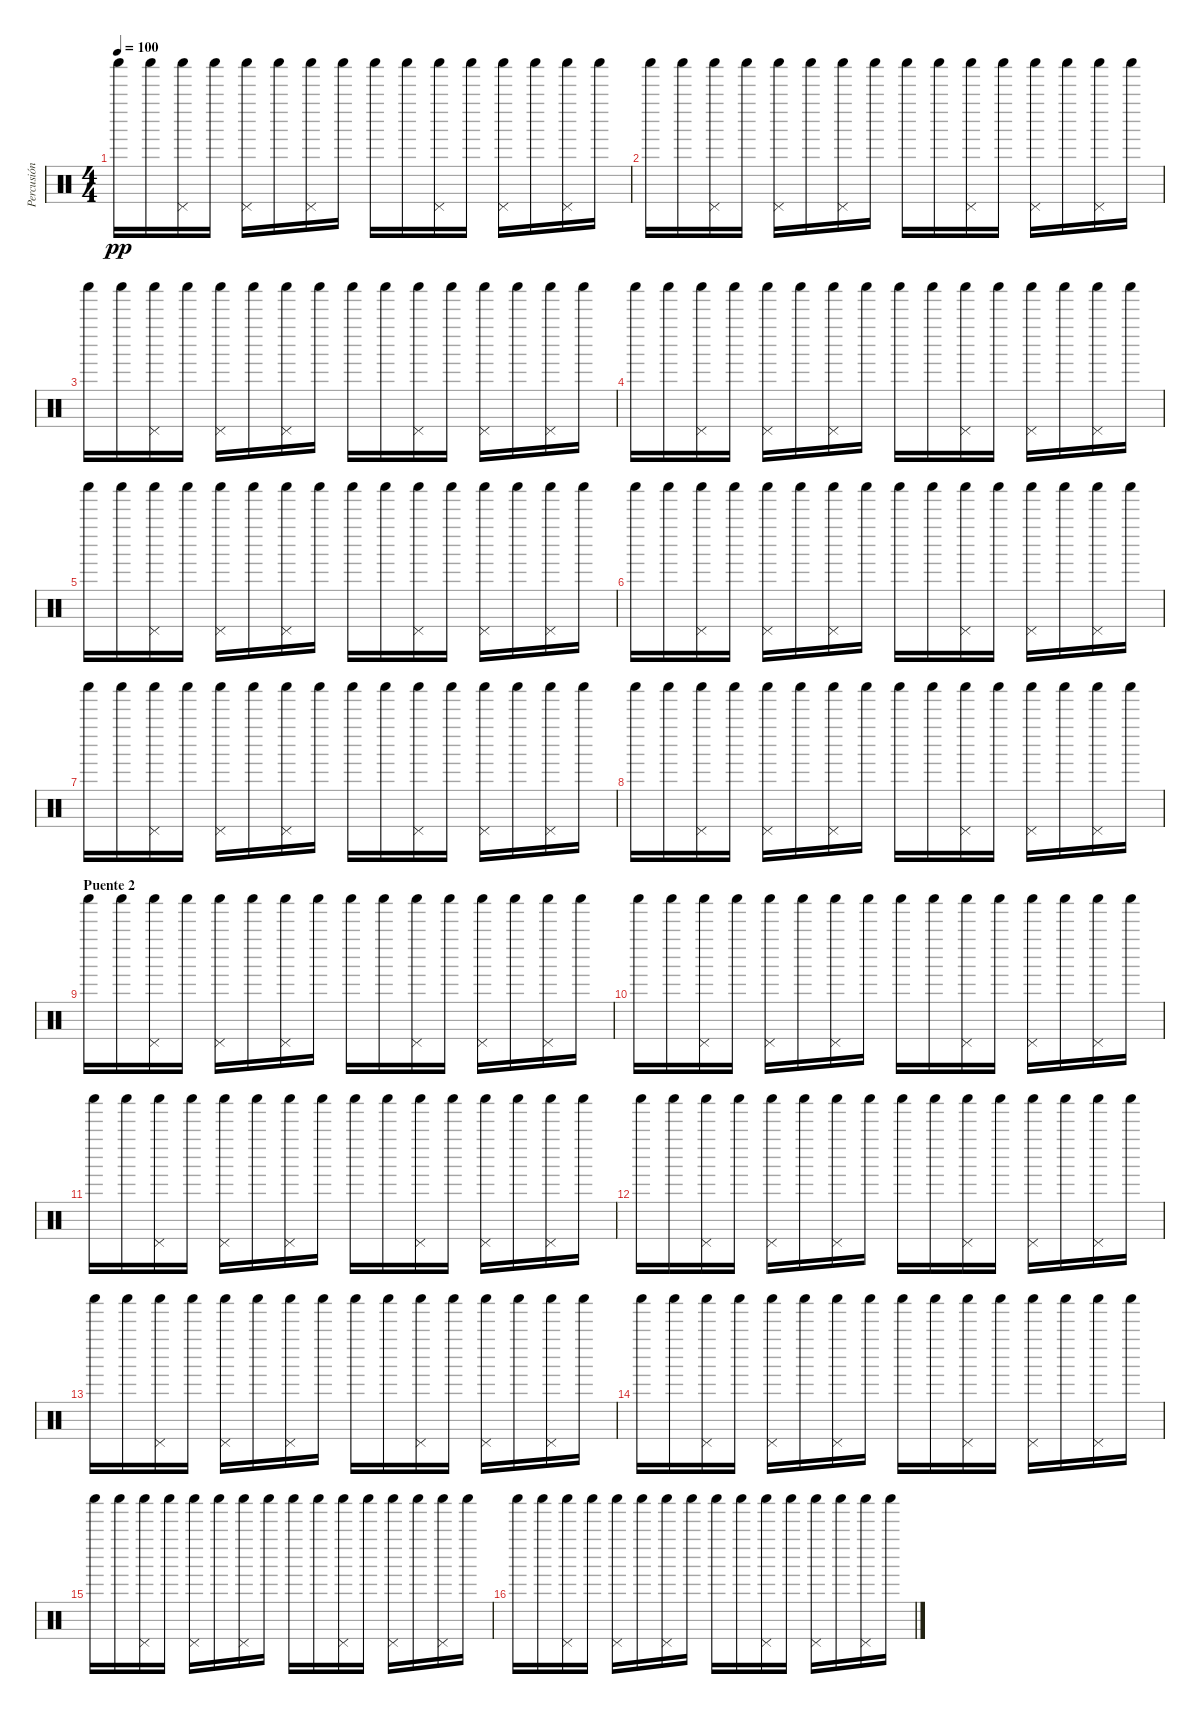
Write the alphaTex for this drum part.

\track ("Percusión" "Percusión") {instrument percussion}
\staff {score}
\articulation defaults
\ts (4 4)
\tempo 100
\clef neutral
\ks c "Shaker (hit)".16{dy pp} "Shaker (hit)".16
("Shaker (hit)" "Pedal Hi-Hat (hit)").16 "Shaker (hit)".16 ("Shaker (hit)" "Pedal Hi-Hat (hit)").16 "Shaker (hit)".16 ("Shaker (hit)" "Pedal Hi-Hat (hit)").16 "Shaker (hit)".16 "Shaker (hit)".16 "Shaker (hit)".16 ("Shaker (hit)" "Pedal Hi-Hat (hit)").16 "Shaker (hit)".16 ("Shaker (hit)" "Pedal Hi-Hat (hit)").16 "Shaker (hit)".16 ("Shaker (hit)" "Pedal Hi-Hat (hit)").16 "Shaker (hit)".16 |
"Shaker (hit)".16 "Shaker (hit)".16 ("Shaker (hit)" "Pedal Hi-Hat (hit)").16 "Shaker (hit)".16 ("Shaker (hit)" "Pedal Hi-Hat (hit)").16 "Shaker (hit)".16 ("Shaker (hit)" "Pedal Hi-Hat (hit)").16 "Shaker (hit)".16 "Shaker (hit)".16 "Shaker (hit)".16 ("Shaker (hit)" "Pedal Hi-Hat (hit)").16 "Shaker (hit)".16 ("Shaker (hit)" "Pedal Hi-Hat (hit)").16 "Shaker (hit)".16 ("Shaker (hit)" "Pedal Hi-Hat (hit)").16 "Shaker (hit)".16 |
"Shaker (hit)".16 "Shaker (hit)".16 ("Shaker (hit)" "Pedal Hi-Hat (hit)").16 "Shaker (hit)".16 ("Shaker (hit)" "Pedal Hi-Hat (hit)").16 "Shaker (hit)".16 ("Shaker (hit)" "Pedal Hi-Hat (hit)").16 "Shaker (hit)".16 "Shaker (hit)".16 "Shaker (hit)".16 ("Shaker (hit)" "Pedal Hi-Hat (hit)").16 "Shaker (hit)".16 ("Shaker (hit)" "Pedal Hi-Hat (hit)").16 "Shaker (hit)".16 ("Shaker (hit)" "Pedal Hi-Hat (hit)").16 "Shaker (hit)".16 |
"Shaker (hit)".16 "Shaker (hit)".16 ("Shaker (hit)" "Pedal Hi-Hat (hit)").16 "Shaker (hit)".16 ("Shaker (hit)" "Pedal Hi-Hat (hit)").16 "Shaker (hit)".16 ("Shaker (hit)" "Pedal Hi-Hat (hit)").16 "Shaker (hit)".16 "Shaker (hit)".16 "Shaker (hit)".16 ("Shaker (hit)" "Pedal Hi-Hat (hit)").16 "Shaker (hit)".16 ("Shaker (hit)" "Pedal Hi-Hat (hit)").16 "Shaker (hit)".16 ("Shaker (hit)" "Pedal Hi-Hat (hit)").16 "Shaker (hit)".16 |
"Shaker (hit)".16 "Shaker (hit)".16 ("Shaker (hit)" "Pedal Hi-Hat (hit)").16 "Shaker (hit)".16 ("Shaker (hit)" "Pedal Hi-Hat (hit)").16 "Shaker (hit)".16 ("Shaker (hit)" "Pedal Hi-Hat (hit)").16 "Shaker (hit)".16 "Shaker (hit)".16 "Shaker (hit)".16 ("Shaker (hit)" "Pedal Hi-Hat (hit)").16 "Shaker (hit)".16 ("Shaker (hit)" "Pedal Hi-Hat (hit)").16 "Shaker (hit)".16 ("Shaker (hit)" "Pedal Hi-Hat (hit)").16 "Shaker (hit)".16 |
"Shaker (hit)".16 "Shaker (hit)".16 ("Shaker (hit)" "Pedal Hi-Hat (hit)").16 "Shaker (hit)".16 ("Shaker (hit)" "Pedal Hi-Hat (hit)").16 "Shaker (hit)".16 ("Shaker (hit)" "Pedal Hi-Hat (hit)").16 "Shaker (hit)".16 "Shaker (hit)".16 "Shaker (hit)".16 ("Shaker (hit)" "Pedal Hi-Hat (hit)").16 "Shaker (hit)".16 ("Shaker (hit)" "Pedal Hi-Hat (hit)").16 "Shaker (hit)".16 ("Shaker (hit)" "Pedal Hi-Hat (hit)").16 "Shaker (hit)".16 |
"Shaker (hit)".16 "Shaker (hit)".16 ("Shaker (hit)" "Pedal Hi-Hat (hit)").16 "Shaker (hit)".16 ("Shaker (hit)" "Pedal Hi-Hat (hit)").16 "Shaker (hit)".16 ("Shaker (hit)" "Pedal Hi-Hat (hit)").16 "Shaker (hit)".16 "Shaker (hit)".16 "Shaker (hit)".16 ("Shaker (hit)" "Pedal Hi-Hat (hit)").16 "Shaker (hit)".16 ("Shaker (hit)" "Pedal Hi-Hat (hit)").16 "Shaker (hit)".16 ("Shaker (hit)" "Pedal Hi-Hat (hit)").16 "Shaker (hit)".16 |
"Shaker (hit)".16 "Shaker (hit)".16 ("Shaker (hit)" "Pedal Hi-Hat (hit)").16 "Shaker (hit)".16 ("Shaker (hit)" "Pedal Hi-Hat (hit)").16 "Shaker (hit)".16 ("Shaker (hit)" "Pedal Hi-Hat (hit)").16 "Shaker (hit)".16 "Shaker (hit)".16 "Shaker (hit)".16 ("Shaker (hit)" "Pedal Hi-Hat (hit)").16 "Shaker (hit)".16 ("Shaker (hit)" "Pedal Hi-Hat (hit)").16 "Shaker (hit)".16 ("Shaker (hit)" "Pedal Hi-Hat (hit)").16 "Shaker (hit)".16 |
\section ("" "Puente 2")
"Shaker (hit)".16 "Shaker (hit)".16 ("Shaker (hit)" "Pedal Hi-Hat (hit)").16 "Shaker (hit)".16 ("Shaker (hit)" "Pedal Hi-Hat (hit)").16 "Shaker (hit)".16 ("Shaker (hit)" "Pedal Hi-Hat (hit)").16 "Shaker (hit)".16 "Shaker (hit)".16 "Shaker (hit)".16 ("Shaker (hit)" "Pedal Hi-Hat (hit)").16 "Shaker (hit)".16 ("Shaker (hit)" "Pedal Hi-Hat (hit)").16 "Shaker (hit)".16 ("Shaker (hit)" "Pedal Hi-Hat (hit)").16 "Shaker (hit)".16 |
"Shaker (hit)".16 "Shaker (hit)".16 ("Shaker (hit)" "Pedal Hi-Hat (hit)").16 "Shaker (hit)".16 ("Shaker (hit)" "Pedal Hi-Hat (hit)").16 "Shaker (hit)".16 ("Shaker (hit)" "Pedal Hi-Hat (hit)").16 "Shaker (hit)".16 "Shaker (hit)".16 "Shaker (hit)".16 ("Shaker (hit)" "Pedal Hi-Hat (hit)").16 "Shaker (hit)".16 ("Shaker (hit)" "Pedal Hi-Hat (hit)").16 "Shaker (hit)".16 ("Shaker (hit)" "Pedal Hi-Hat (hit)").16 "Shaker (hit)".16 |
"Shaker (hit)".16 "Shaker (hit)".16 ("Shaker (hit)" "Pedal Hi-Hat (hit)").16 "Shaker (hit)".16 ("Shaker (hit)" "Pedal Hi-Hat (hit)").16 "Shaker (hit)".16 ("Shaker (hit)" "Pedal Hi-Hat (hit)").16 "Shaker (hit)".16 "Shaker (hit)".16 "Shaker (hit)".16 ("Shaker (hit)" "Pedal Hi-Hat (hit)").16 "Shaker (hit)".16 ("Shaker (hit)" "Pedal Hi-Hat (hit)").16 "Shaker (hit)".16 ("Shaker (hit)" "Pedal Hi-Hat (hit)").16 "Shaker (hit)".16 |
"Shaker (hit)".16 "Shaker (hit)".16 ("Shaker (hit)" "Pedal Hi-Hat (hit)").16 "Shaker (hit)".16 ("Shaker (hit)" "Pedal Hi-Hat (hit)").16 "Shaker (hit)".16 ("Shaker (hit)" "Pedal Hi-Hat (hit)").16 "Shaker (hit)".16 "Shaker (hit)".16 "Shaker (hit)".16 ("Shaker (hit)" "Pedal Hi-Hat (hit)").16 "Shaker (hit)".16 ("Shaker (hit)" "Pedal Hi-Hat (hit)").16 "Shaker (hit)".16 ("Shaker (hit)" "Pedal Hi-Hat (hit)").16 "Shaker (hit)".16 |
"Shaker (hit)".16 "Shaker (hit)".16 ("Shaker (hit)" "Pedal Hi-Hat (hit)").16 "Shaker (hit)".16 ("Shaker (hit)" "Pedal Hi-Hat (hit)").16 "Shaker (hit)".16 ("Shaker (hit)" "Pedal Hi-Hat (hit)").16 "Shaker (hit)".16 "Shaker (hit)".16 "Shaker (hit)".16 ("Shaker (hit)" "Pedal Hi-Hat (hit)").16 "Shaker (hit)".16 ("Shaker (hit)" "Pedal Hi-Hat (hit)").16 "Shaker (hit)".16 ("Shaker (hit)" "Pedal Hi-Hat (hit)").16 "Shaker (hit)".16 |
"Shaker (hit)".16 "Shaker (hit)".16 ("Shaker (hit)" "Pedal Hi-Hat (hit)").16 "Shaker (hit)".16 ("Shaker (hit)" "Pedal Hi-Hat (hit)").16 "Shaker (hit)".16 ("Shaker (hit)" "Pedal Hi-Hat (hit)").16 "Shaker (hit)".16 "Shaker (hit)".16 "Shaker (hit)".16 ("Shaker (hit)" "Pedal Hi-Hat (hit)").16 "Shaker (hit)".16 ("Shaker (hit)" "Pedal Hi-Hat (hit)").16 "Shaker (hit)".16 ("Shaker (hit)" "Pedal Hi-Hat (hit)").16 "Shaker (hit)".16 |
"Shaker (hit)".16 "Shaker (hit)".16 ("Shaker (hit)" "Pedal Hi-Hat (hit)").16 "Shaker (hit)".16 ("Shaker (hit)" "Pedal Hi-Hat (hit)").16 "Shaker (hit)".16 ("Shaker (hit)" "Pedal Hi-Hat (hit)").16 "Shaker (hit)".16 "Shaker (hit)".16 "Shaker (hit)".16 ("Shaker (hit)" "Pedal Hi-Hat (hit)").16 "Shaker (hit)".16 ("Shaker (hit)" "Pedal Hi-Hat (hit)").16 "Shaker (hit)".16 ("Shaker (hit)" "Pedal Hi-Hat (hit)").16 "Shaker (hit)".16 |
"Shaker (hit)".16 "Shaker (hit)".16 ("Shaker (hit)" "Pedal Hi-Hat (hit)").16 "Shaker (hit)".16 ("Shaker (hit)" "Pedal Hi-Hat (hit)").16 "Shaker (hit)".16 ("Shaker (hit)" "Pedal Hi-Hat (hit)").16 "Shaker (hit)".16 "Shaker (hit)".16 "Shaker (hit)".16 ("Shaker (hit)" "Pedal Hi-Hat (hit)").16 "Shaker (hit)".16 ("Shaker (hit)" "Pedal Hi-Hat (hit)").16 "Shaker (hit)".16 ("Shaker (hit)" "Pedal Hi-Hat (hit)").16 "Shaker (hit)".16
